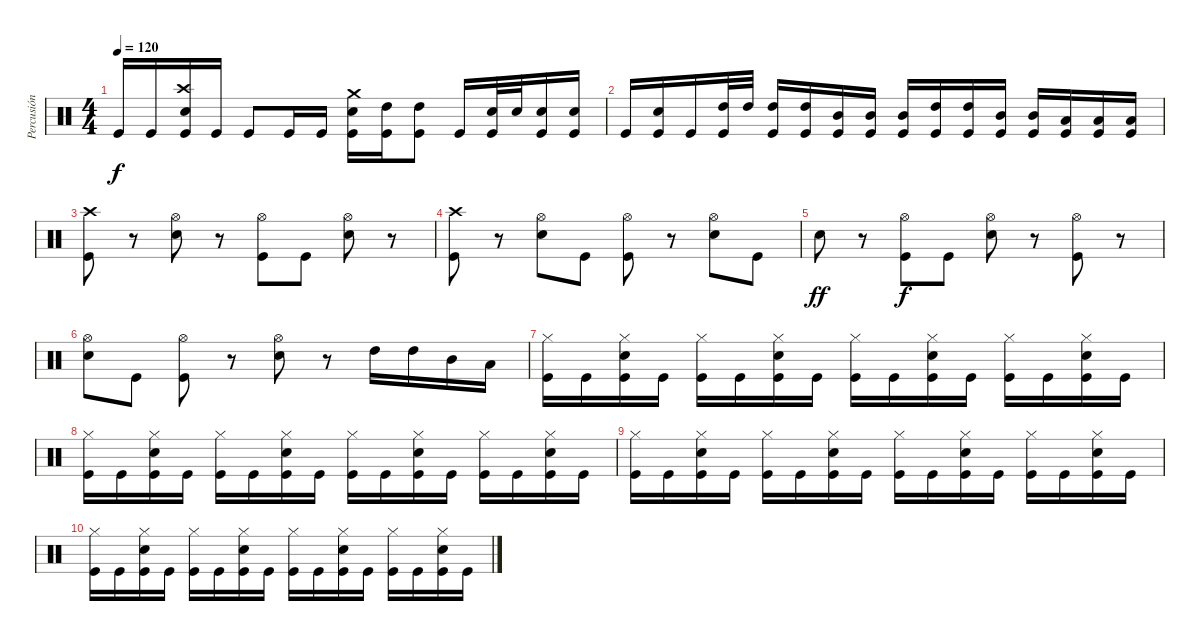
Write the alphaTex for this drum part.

\track ("Percusión" "Percusión") {instrument percussion}
\staff {score}
\articulation defaults
\ts (4 4)
\tempo 120
\clef neutral
\ks c "Kick (hit)".16{dy f} "Kick (hit)".16
("Crash high (hit)" "Snare (hit) 2" "Kick (hit)").16 "Kick (hit)".16 "Kick (hit)".8 "Kick (hit)".16 "Kick (hit)".16 ("Crash medium (hit)" "Snare (hit) 2" "Kick (hit)").16 ("High Tom (hit)" "Kick (hit)").16 ("High Tom (hit)" "Kick (hit)").8 "Kick (hit)".16 ("Snare (hit) 2" "Kick (hit)").32 "Snare (hit) 2".32 ("Snare (hit) 2" "Kick (hit)").16 ("Snare (hit) 2" "Kick (hit)").16 |
"Kick (hit)".16 ("Snare (hit) 2" "Kick (hit)").16 "Kick (hit)".16 ("High Tom (hit)" "Kick (hit)").32 "High Tom (hit)".32 ("High Tom (hit)" "Kick (hit)").16 ("High Tom (hit)" "Kick (hit)").16 ("Mid Tom (hit)" "Kick (hit)").16 ("Mid Tom (hit)" "Kick (hit)").16 ("Mid Tom (hit)" "Kick (hit)").16 ("High Tom (hit)" "Kick (hit)").16 ("High Tom (hit)" "Kick (hit)").16 ("Mid Tom (hit)" "Kick (hit)").16 ("Mid Tom (hit)" "Kick (hit)").16 ("Low Tom (hit)" "Kick (hit)").16 ("Low Tom (hit)" "Kick (hit)").16 ("Low Tom (hit)" "Kick (hit)").16 |
("Crash high (hit)" "Kick (hit)").8 r.8 ("Hi-Hat (open)" "Snare (hit) 2").8 r.8 ("Hi-Hat (open)" "Kick (hit)").8 "Kick (hit)".8 ("Hi-Hat (open)" "Snare (hit) 2").8 r.8 |
("Crash high (hit)" "Kick (hit)").8 r.8 ("Hi-Hat (open)" "Snare (hit) 2").8 "Kick (hit)".8 ("Hi-Hat (open)" "Kick (hit)").8 r.8 ("Hi-Hat (open)" "Snare (hit) 2").8 "Kick (hit)".8 |
"Snare (hit) 2".8{dy ff} r.8 ("Hi-Hat (open)" "Kick (hit)").8{dy f} "Kick (hit)".8 ("Hi-Hat (open)" "Snare (hit) 2").8 r.8 ("Hi-Hat (open)" "Kick (hit)").8 r.8 |
("Hi-Hat (open)" "Snare (hit) 2").8 "Kick (hit)".8 ("Hi-Hat (open)" "Kick (hit)").8 r.8 ("Hi-Hat (open)" "Snare (hit) 2").8 r.8 "High Tom (hit)".16 "High Tom (hit)".16 "Mid Tom (hit)".16 "Low Tom (hit)".16 |
("Hi-Hat (closed)" "Kick (hit)").16 "Kick (hit)".16 ("Hi-Hat (closed)" "Snare (hit) 2" "Kick (hit)").16 "Kick (hit)".16 ("Hi-Hat (closed)" "Kick (hit)").16 "Kick (hit)".16 ("Hi-Hat (closed)" "Snare (hit) 2" "Kick (hit)").16 "Kick (hit)".16 ("Hi-Hat (closed)" "Kick (hit)").16 "Kick (hit)".16 ("Hi-Hat (closed)" "Snare (hit) 2" "Kick (hit)").16 "Kick (hit)".16 ("Hi-Hat (closed)" "Kick (hit)").16 "Kick (hit)".16 ("Hi-Hat (closed)" "Snare (hit) 2" "Kick (hit)").16 "Kick (hit)".16 |
("Hi-Hat (closed)" "Kick (hit)").16 "Kick (hit)".16 ("Hi-Hat (closed)" "Snare (hit) 2" "Kick (hit)").16 "Kick (hit)".16 ("Hi-Hat (closed)" "Kick (hit)").16 "Kick (hit)".16 ("Hi-Hat (closed)" "Snare (hit) 2" "Kick (hit)").16 "Kick (hit)".16 ("Hi-Hat (closed)" "Kick (hit)").16 "Kick (hit)".16 ("Hi-Hat (closed)" "Snare (hit) 2" "Kick (hit)").16 "Kick (hit)".16 ("Hi-Hat (closed)" "Kick (hit)").16 "Kick (hit)".16 ("Hi-Hat (closed)" "Snare (hit) 2" "Kick (hit)").16 "Kick (hit)".16 |
("Hi-Hat (closed)" "Kick (hit)").16 "Kick (hit)".16 ("Hi-Hat (closed)" "Snare (hit) 2" "Kick (hit)").16 "Kick (hit)".16 ("Hi-Hat (closed)" "Kick (hit)").16 "Kick (hit)".16 ("Hi-Hat (closed)" "Snare (hit) 2" "Kick (hit)").16 "Kick (hit)".16 ("Hi-Hat (closed)" "Kick (hit)").16 "Kick (hit)".16 ("Hi-Hat (closed)" "Snare (hit) 2" "Kick (hit)").16 "Kick (hit)".16 ("Hi-Hat (closed)" "Kick (hit)").16 "Kick (hit)".16 ("Hi-Hat (closed)" "Snare (hit) 2" "Kick (hit)").16 "Kick (hit)".16 |
("Hi-Hat (closed)" "Kick (hit)").16 "Kick (hit)".16 ("Hi-Hat (closed)" "Snare (hit) 2" "Kick (hit)").16 "Kick (hit)".16 ("Hi-Hat (closed)" "Kick (hit)").16 "Kick (hit)".16 ("Hi-Hat (closed)" "Snare (hit) 2" "Kick (hit)").16 "Kick (hit)".16 ("Hi-Hat (closed)" "Kick (hit)").16 "Kick (hit)".16 ("Hi-Hat (closed)" "Snare (hit) 2" "Kick (hit)").16 "Kick (hit)".16 ("Hi-Hat (closed)" "Kick (hit)").16 "Kick (hit)".16 ("Hi-Hat (closed)" "Snare (hit) 2" "Kick (hit)").16 "Kick (hit)".16
